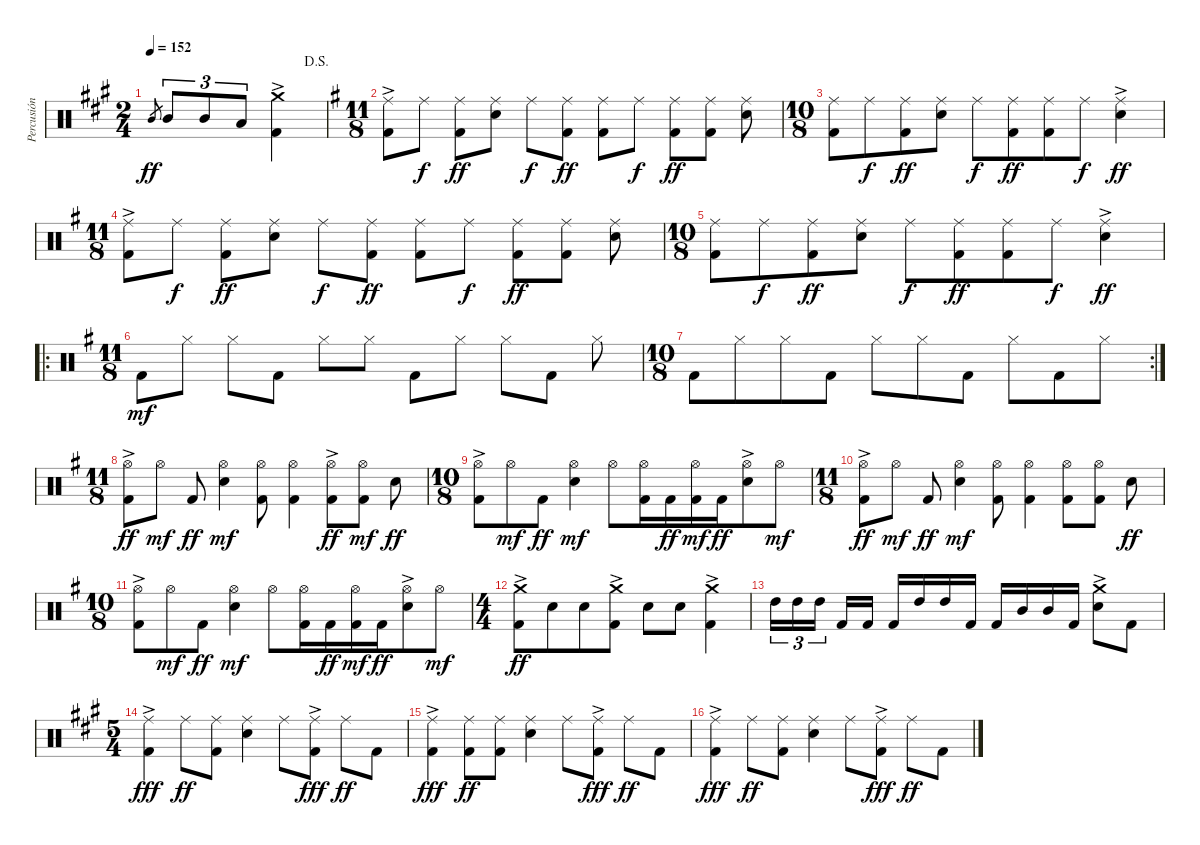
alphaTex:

\track ("Percusión" "Percusión") {instrument percussion}
\staff {score}
\articulation defaults
\ts (2 4)
\jump dalsegno
\tempo 152
\clef neutral
\ks a "Mid Tom (hit)".8{gr dy ff} "Mid Tom (hit)".8{tu (3 2)} "Mid Tom (hit)".8{tu (3 2)} "Low Tom (hit)".8{tu (3 2)}
("Kick (hit) 2" "Crash medium (hit)"{ac}).4 |
\ts (11 8)
\ks g
("Kick (hit) 2" "Ride (middle)"{ac}).8 "Ride (middle)".8{dy f} ("Kick (hit) 2" "Ride (middle)").8{dy ff} ("Electric Snare (hit)" "Ride (middle)").8 "Ride (middle)".8{dy f} ("Kick (hit) 2" "Ride (middle)").8{dy ff} ("Kick (hit) 2" "Ride (middle)").8 "Ride (middle)".8{dy f} ("Kick (hit) 2" "Ride (middle)").8{dy ff} ("Kick (hit) 2" "Ride (middle)").8 ("Electric Snare (hit)" "Ride (middle)").8 |
\ts (10 8)
("Kick (hit) 2" "Ride (middle)").8 "Ride (middle)".8{dy f} ("Kick (hit) 2" "Ride (middle)").8{dy ff} ("Electric Snare (hit)" "Ride (middle)").8 "Ride (middle)".8{dy f} ("Kick (hit) 2" "Ride (middle)").8{dy ff} ("Kick (hit) 2" "Ride (middle)").8{beam merge} "Ride (middle)".8{dy f} ("Electric Snare (hit)" "Ride (middle)"{ac}).4{dy ff} |
\ts (11 8)
("Kick (hit) 2" "Ride (middle)"{ac}).8 "Ride (middle)".8{dy f} ("Kick (hit) 2" "Ride (middle)").8{dy ff} ("Electric Snare (hit)" "Ride (middle)").8 "Ride (middle)".8{dy f} ("Kick (hit) 2" "Ride (middle)").8{dy ff} ("Kick (hit) 2" "Ride (middle)").8 "Ride (middle)".8{dy f} ("Kick (hit) 2" "Ride (middle)").8{dy ff} ("Kick (hit) 2" "Ride (middle)").8 ("Electric Snare (hit)" "Ride (middle)").8 |
\ts (10 8)
("Kick (hit) 2" "Ride (middle)").8 "Ride (middle)".8{dy f} ("Kick (hit) 2" "Ride (middle)").8{dy ff} ("Electric Snare (hit)" "Ride (middle)").8 "Ride (middle)".8{dy f} ("Kick (hit) 2" "Ride (middle)").8{dy ff} ("Kick (hit) 2" "Ride (middle)").8{beam merge} "Ride (middle)".8{dy f} ("Electric Snare (hit)" "Ride (middle)"{ac}).4{dy ff} |
\ro
\ts (11 8)
"Kick (hit) 2".8{dy mf} "Hi-Hat (closed)".8 "Hi-Hat (closed)".8 "Kick (hit) 2".8 "Hi-Hat (closed)".8 "Hi-Hat (closed)".8 "Kick (hit) 2".8 "Hi-Hat (closed)".8 "Hi-Hat (closed)".8 "Kick (hit) 2".8 "Hi-Hat (closed)".8 |
\rc 2
\ts (10 8)
"Kick (hit) 2".8 "Hi-Hat (closed)".8 "Hi-Hat (closed)".8 "Kick (hit) 2".8 "Hi-Hat (closed)".8 "Hi-Hat (closed)".8 "Kick (hit) 2".8 "Hi-Hat (closed)".8 "Kick (hit) 2".8 "Hi-Hat (closed)".8 |
\ts (11 8)
("Kick (hit) 2" "Hi-Hat (open)"{ac}).8{dy ff} "Hi-Hat (open)".8{dy mf} "Kick (hit) 2".8{dy ff} ("Electric Snare (hit)" "Hi-Hat (open)").4{dy mf} ("Kick (hit) 2" "Hi-Hat (open)").8 ("Kick (hit) 2" "Hi-Hat (open)").4 ("Kick (hit) 2" "Hi-Hat (open)"{ac}).8{dy ff} ("Kick (hit) 2" "Hi-Hat (open)").8{dy mf} "Electric Snare (hit)".8{dy ff} |
\ts (10 8)
("Kick (hit) 2" "Hi-Hat (open)"{ac}).8 "Hi-Hat (open)".8{dy mf} "Kick (hit) 2".8{dy ff} ("Electric Snare (hit)" "Hi-Hat (open)").4{dy mf} "Hi-Hat (open)".8 ("Kick (hit) 2" "Hi-Hat (open)").16 "Kick (hit) 2".16{dy ff beam merge} ("Kick (hit) 2" "Hi-Hat (open)").16{dy mf} "Kick (hit) 2".16{dy ff} ("Electric Snare (hit)" "Hi-Hat (open)"{ac}).8 "Hi-Hat (open)".8{dy mf} |
\ts (11 8)
("Kick (hit) 2" "Hi-Hat (open)"{ac}).8{dy ff} "Hi-Hat (open)".8{dy mf} "Kick (hit) 2".8{dy ff} ("Electric Snare (hit)" "Hi-Hat (open)").4{dy mf} ("Kick (hit) 2" "Hi-Hat (open)").8 ("Kick (hit) 2" "Hi-Hat (open)").4 ("Kick (hit) 2" "Hi-Hat (open)").8 ("Kick (hit) 2" "Hi-Hat (open)").8 "Electric Snare (hit)".8{dy ff} |
\ts (10 8)
("Kick (hit) 2" "Hi-Hat (open)"{ac}).8 "Hi-Hat (open)".8{dy mf} "Kick (hit) 2".8{dy ff} ("Electric Snare (hit)" "Hi-Hat (open)").4{dy mf} "Hi-Hat (open)".8 ("Kick (hit) 2" "Hi-Hat (open)").16 "Kick (hit) 2".16{dy ff beam merge} ("Kick (hit) 2" "Hi-Hat (open)").16{dy mf} "Kick (hit) 2".16{dy ff} ("Electric Snare (hit)" "Hi-Hat (open)"{ac}).8 "Hi-Hat (open)".8{dy mf} |
\ts (4 4)
("Kick (hit) 2" "Crash medium (hit)"{ac}).8{dy ff} "Electric Snare (hit)".8{beam merge} "Electric Snare (hit)".8 ("Kick (hit) 2" "Crash medium (hit)"{ac}).8 "Electric Snare (hit)".8 "Electric Snare (hit)".8 ("Kick (hit) 2" "Crash medium (hit)"{ac}).4 |
"High Tom (hit)".16{tu (3 2)} "High Tom (hit)".16{tu (3 2)} "High Tom (hit)".16{tu (3 2) beam splitsecondary} "Kick (hit) 2".16 "Kick (hit) 2".16 "Kick (hit) 2".16 "High Tom (hit)".16 "High Tom (hit)".16 "Kick (hit) 2".16 "Kick (hit) 2".16 "Mid Tom (hit)".16 "Mid Tom (hit)".16 "Kick (hit) 2".16 ("Electric Snare (hit)" "Crash medium (hit)"{ac}).8 "Kick (hit) 2".8 |
\ts (5 4)
\ks a
("Kick (hit) 2" "Ride (middle)"{ac}).4{dy fff} "Ride (middle)".8{dy ff} ("Kick (hit) 2" "Ride (middle)").8 ("Electric Snare (hit)" "Ride (middle)").4 "Ride (middle)".8 ("Kick (hit) 2" "Ride (middle)"{ac}).8{dy fff} "Ride (middle)".8{dy ff} "Kick (hit) 2".8 |
("Kick (hit) 2" "Ride (middle)"{ac}).4{dy fff} ("Kick (hit) 2" "Ride (middle)").8{dy ff} ("Kick (hit) 2" "Ride (middle)").8 ("Electric Snare (hit)" "Ride (middle)").4 "Ride (middle)".8 ("Kick (hit) 2" "Ride (middle)"{ac}).8{dy fff} "Ride (middle)".8{dy ff} "Kick (hit) 2".8 |
("Kick (hit) 2" "Ride (middle)"{ac}).4{dy fff} "Ride (middle)".8{dy ff} ("Kick (hit) 2" "Ride (middle)").8 ("Electric Snare (hit)" "Ride (middle)").4 "Ride (middle)".8 ("Kick (hit) 2" "Ride (middle)"{ac}).8{dy fff} "Ride (middle)".8{dy ff} "Kick (hit) 2".8
